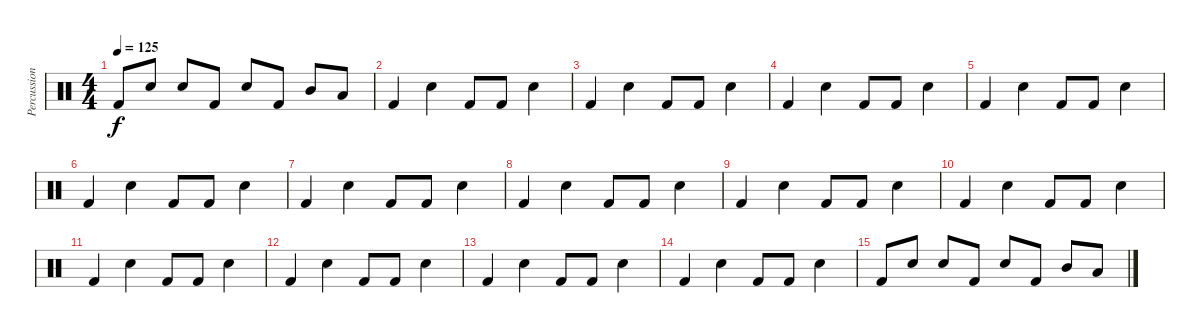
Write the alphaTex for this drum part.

\track ("Percussion" "Percussion") {instrument percussion}
\staff {score}
\articulation defaults
\ts (4 4)
\tempo 125
\clef neutral
\ks c "Kick (hit) 2".8{dy f} "Snare (hit) 2".8 "Snare (hit) 2".8 "Kick (hit) 2".8 "Snare (hit) 2".8 "Kick (hit) 2".8 "Mid Tom (hit)".8 "Low Tom (hit)".8
|
"Kick (hit) 2".4 "Snare (hit) 2".4 "Kick (hit) 2".8 "Kick (hit) 2".8 "Snare (hit) 2".4 |
"Kick (hit) 2".4 "Snare (hit) 2".4 "Kick (hit) 2".8 "Kick (hit) 2".8 "Snare (hit) 2".4 |
"Kick (hit) 2".4 "Snare (hit) 2".4 "Kick (hit) 2".8 "Kick (hit) 2".8 "Snare (hit) 2".4 |
"Kick (hit) 2".4 "Snare (hit) 2".4 "Kick (hit) 2".8 "Kick (hit) 2".8 "Snare (hit) 2".4 |
"Kick (hit) 2".4 "Snare (hit) 2".4 "Kick (hit) 2".8 "Kick (hit) 2".8 "Snare (hit) 2".4 |
"Kick (hit) 2".4 "Snare (hit) 2".4 "Kick (hit) 2".8 "Kick (hit) 2".8 "Snare (hit) 2".4 |
"Kick (hit) 2".4 "Snare (hit) 2".4 "Kick (hit) 2".8 "Kick (hit) 2".8 "Snare (hit) 2".4 |
"Kick (hit) 2".4 "Snare (hit) 2".4 "Kick (hit) 2".8 "Kick (hit) 2".8 "Snare (hit) 2".4 |
"Kick (hit) 2".4 "Snare (hit) 2".4 "Kick (hit) 2".8 "Kick (hit) 2".8 "Snare (hit) 2".4 |
"Kick (hit) 2".4 "Snare (hit) 2".4 "Kick (hit) 2".8 "Kick (hit) 2".8 "Snare (hit) 2".4 |
"Kick (hit) 2".4 "Snare (hit) 2".4 "Kick (hit) 2".8 "Kick (hit) 2".8 "Snare (hit) 2".4 |
"Kick (hit) 2".4 "Snare (hit) 2".4 "Kick (hit) 2".8 "Kick (hit) 2".8 "Snare (hit) 2".4 |
"Kick (hit) 2".4 "Snare (hit) 2".4 "Kick (hit) 2".8 "Kick (hit) 2".8 "Snare (hit) 2".4 |
"Kick (hit) 2".8 "Snare (hit) 2".8 "Snare (hit) 2".8 "Kick (hit) 2".8 "Snare (hit) 2".8 "Kick (hit) 2".8 "Mid Tom (hit)".8 "Low Tom (hit)".8
